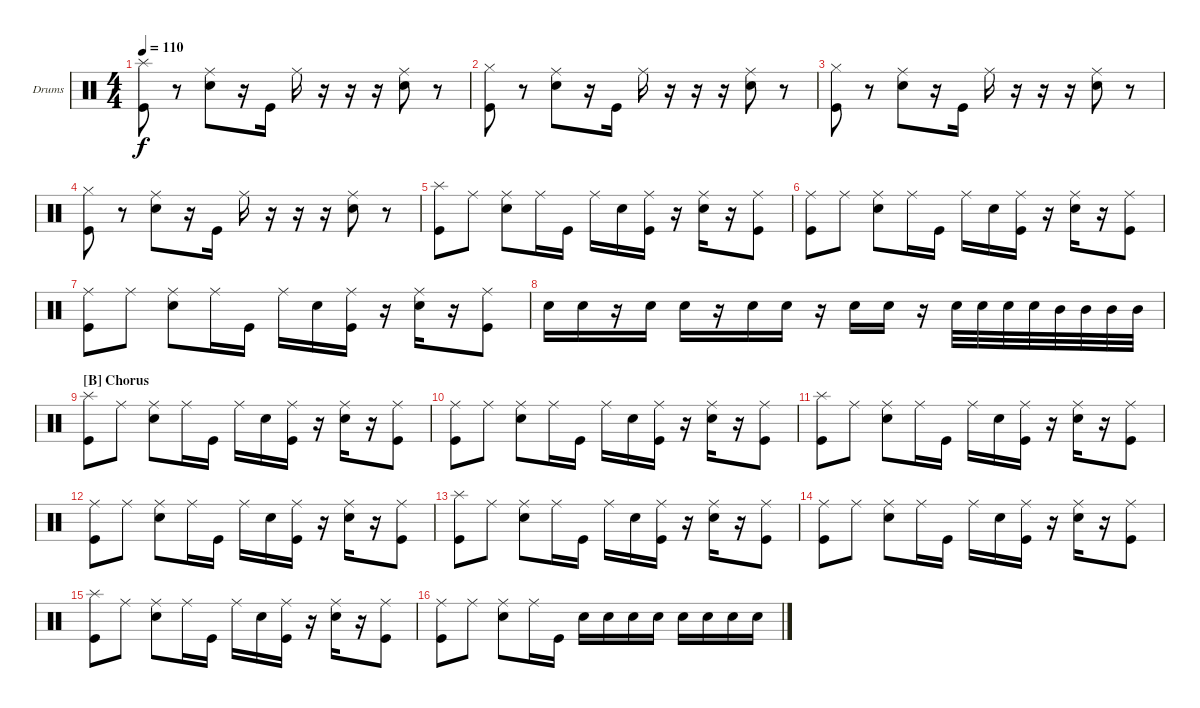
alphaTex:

\defaultSystemsLayout 4
\bracketExtendMode groupsimilarinstruments
\firstSystemTrackNameOrientation horizontal
\otherSystemsTrackNameOrientation horizontal
\track ("Drumkit" "Drums") {instrument percussion}
\staff {score}
\articulation defaults
\ts (4 4)
\tempo 110
\clef neutral
\ks c
("Splash (hit)" "Kick (hit)").8{dy f} r.8 ("Snare (hit) 2" "Ride (middle)").8 r.16 "Kick (hit)".16 "Ride (middle)".16 r.16 r.16 r.16 ("Snare (hit) 2" "Ride (middle)").8 r.8 |
("Kick (hit)" "Hi-Hat (closed)").8 r.8 ("Snare (hit) 2" "Ride (middle)").8 r.16 "Kick (hit)".16 "Ride (middle)".16 r.16 r.16 r.16 ("Snare (hit) 2" "Ride (middle)").8 r.8 |
("Kick (hit)" "Hi-Hat (closed)").8 r.8 ("Snare (hit) 2" "Ride (middle)").8 r.16 "Kick (hit)".16 "Ride (middle)".16 r.16 r.16 r.16 ("Snare (hit) 2" "Ride (middle)").8 r.8 |
("Kick (hit)" "Hi-Hat (closed)").8 r.8 ("Snare (hit) 2" "Ride (middle)").8 r.16 "Kick (hit)".16 "Ride (middle)".16 r.16 r.16 r.16 ("Snare (hit) 2" "Ride (middle)").8 r.8 |
("Splash (hit)" "Kick (hit)").8 "Ride (middle)".8 ("Snare (hit) 2" "Ride (middle)").8 "Ride (middle)".16 "Kick (hit)".16 "Ride (middle)".16 "Snare (hit) 2".16 ("Kick (hit)" "Ride (middle)").16 r.16 ("Snare (hit) 2" "Ride (middle)").16 r.16 ("Kick (hit)" "Ride (middle)").8 |
("Kick (hit)" "Ride (middle)").8 "Ride (middle)".8 ("Snare (hit) 2" "Ride (middle)").8 "Ride (middle)".16 "Kick (hit)".16 "Ride (middle)".16 "Snare (hit) 2".16 ("Kick (hit)" "Ride (middle)").16 r.16 ("Snare (hit) 2" "Ride (middle)").16 r.16 ("Kick (hit)" "Ride (middle)").8 |
("Kick (hit)" "Ride (middle)").8 "Ride (middle)".8 ("Snare (hit) 2" "Ride (middle)").8 "Ride (middle)".16 "Kick (hit)".16 "Ride (middle)".16 "Snare (hit) 2".16 ("Kick (hit)" "Ride (middle)").16 r.16 ("Snare (hit) 2" "Ride (middle)").16 r.16 ("Kick (hit)" "Ride (middle)").8 |
"Snare (hit) 2".16 "Snare (hit) 2".16 r.16 "Snare (hit) 2".16 "Snare (hit) 2".16 r.16 "Snare (hit) 2".16 "Snare (hit) 2".16 r.16 "Snare (hit) 2".16 "Snare (hit) 2".16 r.16 "Snare (hit) 2".32 "Snare (hit) 2".32 "Snare (hit) 2".32 "Snare (hit) 2".32 "Mid Tom (hit)".32 "Mid Tom (hit)".32 "Mid Tom (hit)".32 "Mid Tom (hit)".32 |
\section ("B" "Chorus")
("Splash (hit)" "Kick (hit)").8 "Ride (middle)".8 ("Snare (hit) 2" "Ride (middle)").8 "Ride (middle)".16 "Kick (hit)".16 "Ride (middle)".16 "Snare (hit) 2".16 ("Kick (hit)" "Ride (middle)").16 r.16 ("Snare (hit) 2" "Ride (middle)").16 r.16 ("Kick (hit)" "Ride (middle)").8 |
("Kick (hit)" "Ride (middle)").8 "Ride (middle)".8 ("Snare (hit) 2" "Ride (middle)").8 "Ride (middle)".16 "Kick (hit)".16 "Ride (middle)".16 "Snare (hit) 2".16 ("Kick (hit)" "Ride (middle)").16 r.16 ("Snare (hit) 2" "Ride (middle)").16 r.16 ("Kick (hit)" "Ride (middle)").8 |
("Splash (hit)" "Kick (hit)").8 "Ride (middle)".8 ("Snare (hit) 2" "Ride (middle)").8 "Ride (middle)".16 "Kick (hit)".16 "Ride (middle)".16 "Snare (hit) 2".16 ("Kick (hit)" "Ride (middle)").16 r.16 ("Snare (hit) 2" "Ride (middle)").16 r.16 ("Kick (hit)" "Ride (middle)").8 |
("Kick (hit)" "Ride (middle)").8 "Ride (middle)".8 ("Snare (hit) 2" "Ride (middle)").8 "Ride (middle)".16 "Kick (hit)".16 "Ride (middle)".16 "Snare (hit) 2".16 ("Kick (hit)" "Ride (middle)").16 r.16 ("Snare (hit) 2" "Ride (middle)").16 r.16 ("Kick (hit)" "Ride (middle)").8 |
("Splash (hit)" "Kick (hit)").8 "Ride (middle)".8 ("Snare (hit) 2" "Ride (middle)").8 "Ride (middle)".16 "Kick (hit)".16 "Ride (middle)".16 "Snare (hit) 2".16 ("Kick (hit)" "Ride (middle)").16 r.16 ("Snare (hit) 2" "Ride (middle)").16 r.16 ("Kick (hit)" "Ride (middle)").8 |
("Kick (hit)" "Ride (middle)").8 "Ride (middle)".8 ("Snare (hit) 2" "Ride (middle)").8 "Ride (middle)".16 "Kick (hit)".16 "Ride (middle)".16 "Snare (hit) 2".16 ("Kick (hit)" "Ride (middle)").16 r.16 ("Snare (hit) 2" "Ride (middle)").16 r.16 ("Kick (hit)" "Ride (middle)").8 |
("Splash (hit)" "Kick (hit)").8 "Ride (middle)".8 ("Snare (hit) 2" "Ride (middle)").8 "Ride (middle)".16 "Kick (hit)".16 "Ride (middle)".16 "Snare (hit) 2".16 ("Kick (hit)" "Ride (middle)").16 r.16 ("Snare (hit) 2" "Ride (middle)").16 r.16 ("Kick (hit)" "Ride (middle)").8 |
("Kick (hit)" "Ride (middle)").8 "Ride (middle)".8 ("Snare (hit) 2" "Ride (middle)").8 "Ride (middle)".16 "Kick (hit)".16 "Snare (hit) 2".16 "Snare (hit) 2".16 "Snare (hit) 2".16 "Snare (hit) 2".16 "Snare (hit) 2".16 "Snare (hit) 2".16 "Snare (hit) 2".16 "Snare (hit) 2".16
